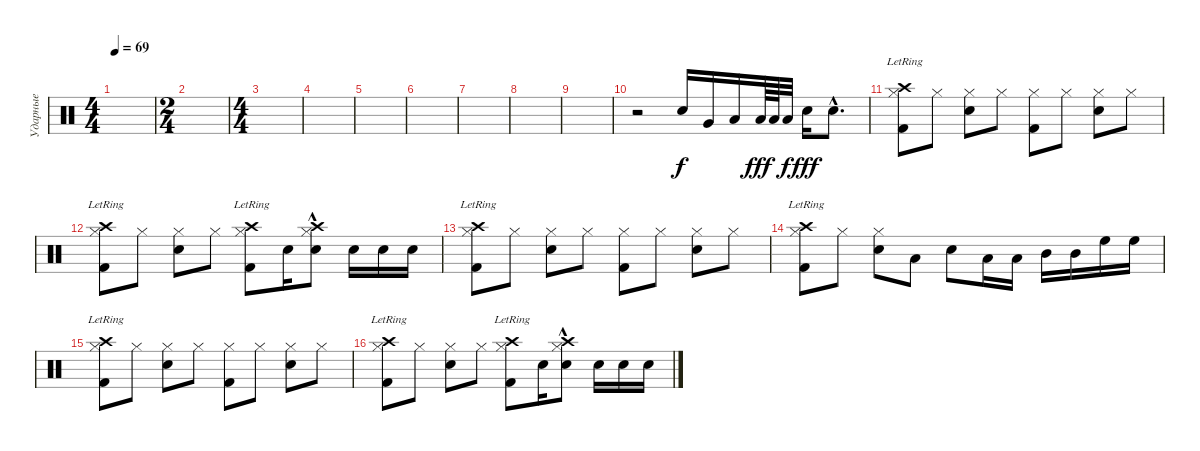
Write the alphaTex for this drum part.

\track ("Ударные" "Ударные") {instrument percussion}
\staff {score}
\articulation defaults
\ts (4 4)
\tempo 69
\clef neutral
\ks c
|
\ts (2 4)
|
\ts (4 4)
|
|
|
|
|
|
|
r.2 "Snare (hit) 2".16 "Very Low Tom (hit)".16{dy f} "Low Floor Tom (hit)".16 "Low Tom (hit)".64{dy fff} "Low Tom (hit)".64 "Low Tom (hit)".32{dy f} "Snare (hit) 2".16{dy fff} "Snare (hit) 2"{hac}.8{d} |
("Hi-Hat (closed)" "Kick (hit) 2" "Crash high (hit)"{lr}).8 "Hi-Hat (closed)".8 ("Hi-Hat (closed)" "Snare (hit) 2").8 "Hi-Hat (closed)".8 ("Hi-Hat (closed)" "Kick (hit) 2").8 "Hi-Hat (closed)".8 ("Hi-Hat (closed)" "Snare (hit) 2").8 "Hi-Hat (closed)".8 |
("Hi-Hat (closed)" "Kick (hit) 2" "Crash high (hit)"{lr}).8 "Hi-Hat (closed)".8 ("Hi-Hat (closed)" "Snare (hit) 2").8 "Hi-Hat (closed)".8 ("Hi-Hat (closed)" "Kick (hit) 2" "Crash high (hit)"{lr}).8 "Snare (hit) 2".16 ("Hi-Hat (closed)" "Snare (hit) 2" "Crash high (hit)"{hac}).8 "Snare (hit) 2".16 "Snare (hit) 2".16 "Snare (hit) 2".16 |
("Hi-Hat (closed)" "Kick (hit) 2" "Crash high (hit)"{lr}).8 "Hi-Hat (closed)".8 ("Hi-Hat (closed)" "Snare (hit) 2").8 "Hi-Hat (closed)".8 ("Hi-Hat (closed)" "Kick (hit) 2").8 "Hi-Hat (closed)".8 ("Hi-Hat (closed)" "Snare (hit) 2").8 "Hi-Hat (closed)".8 |
("Hi-Hat (closed)" "Kick (hit) 2" "Crash high (hit)"{lr}).8 "Hi-Hat (closed)".8 ("Hi-Hat (closed)" "Snare (hit) 2").8 "Low Floor Tom (hit)".8 "Snare (hit) 2".8 "Low Tom (hit)".16 "Low Tom (hit)".16 "Mid Tom (hit)".16 "Mid Tom (hit)".16 "High Floor Tom (hit)".16 "High Floor Tom (hit)".16 |
("Hi-Hat (closed)" "Kick (hit) 2" "Crash high (hit)"{lr}).8 "Hi-Hat (closed)".8 ("Hi-Hat (closed)" "Snare (hit) 2").8 "Hi-Hat (closed)".8 ("Hi-Hat (closed)" "Kick (hit) 2").8 "Hi-Hat (closed)".8 ("Hi-Hat (closed)" "Snare (hit) 2").8 "Hi-Hat (closed)".8 |
("Hi-Hat (closed)" "Kick (hit) 2" "Crash high (hit)"{lr}).8 "Hi-Hat (closed)".8 ("Hi-Hat (closed)" "Snare (hit) 2").8 "Hi-Hat (closed)".8 ("Hi-Hat (closed)" "Kick (hit) 2" "Crash high (hit)"{lr}).8 "Snare (hit) 2".16 ("Hi-Hat (closed)" "Snare (hit) 2" "Crash high (hit)"{hac}).8 "Snare (hit) 2".16 "Snare (hit) 2".16 "Snare (hit) 2".16
